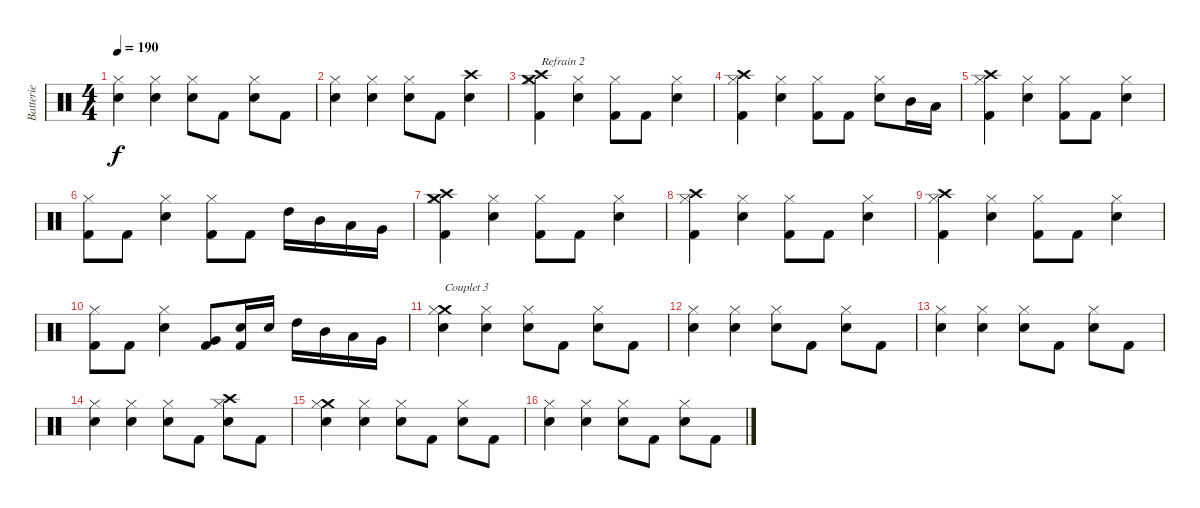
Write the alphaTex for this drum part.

\track ("Batterie" "Batterie") {instrument percussion}
\staff {score}
\articulation defaults
\ts (4 4)
\tempo 190
\clef neutral
\ks c
("Electric Snare (hit)" "Hi-Hat (closed)").4{dy f} ("Electric Snare (hit)" "Hi-Hat (closed)").4 ("Electric Snare (hit)" "Hi-Hat (closed)").8 "Kick (hit) 2".8 ("Electric Snare (hit)" "Hi-Hat (closed)").8 "Kick (hit) 2".8 |
("Electric Snare (hit)" "Hi-Hat (closed)").4 ("Electric Snare (hit)" "Hi-Hat (closed)").4 ("Electric Snare (hit)" "Hi-Hat (closed)").8 "Kick (hit) 2".8 ("Crash high (hit)" "Electric Snare (hit)").4 |
("Crash medium (hit)" "Crash high (hit)" "Hi-Hat (closed)" "Kick (hit) 2").4{txt "Refrain 2"} ("Electric Snare (hit)" "Hi-Hat (closed)").4 ("Hi-Hat (closed)" "Kick (hit) 2").8 "Kick (hit) 2".8 ("Electric Snare (hit)" "Hi-Hat (closed)").4 |
("Crash high (hit)" "Hi-Hat (closed)" "Kick (hit) 2").4 ("Electric Snare (hit)" "Hi-Hat (closed)").4 ("Hi-Hat (closed)" "Kick (hit) 2").8 "Kick (hit) 2".8 ("Electric Snare (hit)" "Hi-Hat (closed)").8 "Mid Tom (hit)".16 "Low Tom (hit)".16 |
("Crash high (hit)" "Hi-Hat (closed)" "Kick (hit) 2").4 ("Electric Snare (hit)" "Hi-Hat (closed)").4 ("Hi-Hat (closed)" "Kick (hit) 2").8 "Kick (hit) 2".8 ("Electric Snare (hit)" "Hi-Hat (closed)").4 |
("Hi-Hat (closed)" "Kick (hit) 2").8 "Kick (hit) 2".8 ("Electric Snare (hit)" "Hi-Hat (closed)").4 ("Hi-Hat (closed)" "Kick (hit) 2").8 "Kick (hit) 2".8 "High Tom (hit)".16 "Mid Tom (hit)".16 "Low Tom (hit)".16 "Very Low Tom (hit)".16 |
("Crash medium (hit)" "Crash high (hit)" "Hi-Hat (closed)" "Kick (hit) 2").4 ("Electric Snare (hit)" "Hi-Hat (closed)").4 ("Hi-Hat (closed)" "Kick (hit) 2").8 "Kick (hit) 2".8 ("Electric Snare (hit)" "Hi-Hat (closed)").4 |
("Crash high (hit)" "Hi-Hat (closed)" "Kick (hit) 2").4 ("Electric Snare (hit)" "Hi-Hat (closed)").4 ("Hi-Hat (closed)" "Kick (hit) 2").8 "Kick (hit) 2".8 ("Electric Snare (hit)" "Hi-Hat (closed)").4 |
("Crash high (hit)" "Hi-Hat (closed)" "Kick (hit) 2").4 ("Electric Snare (hit)" "Hi-Hat (closed)").4 ("Hi-Hat (closed)" "Kick (hit) 2").8 "Kick (hit) 2".8 ("Electric Snare (hit)" "Hi-Hat (closed)").4 |
("Hi-Hat (closed)" "Kick (hit) 2").8 "Kick (hit) 2".8 ("Electric Snare (hit)" "Hi-Hat (closed)").4 ("Very Low Tom (hit)" "Kick (hit) 2").8 ("Electric Snare (hit)" "Kick (hit) 2").16 "Electric Snare (hit)".16 "High Tom (hit)".16 "Mid Tom (hit)".16 "Low Tom (hit)".16 "Very Low Tom (hit)".16 |
("Crash medium (hit)" "Electric Snare (hit)" "Hi-Hat (closed)").4{txt "Couplet 3"} ("Electric Snare (hit)" "Hi-Hat (closed)").4 ("Electric Snare (hit)" "Hi-Hat (closed)").8 "Kick (hit) 2".8 ("Electric Snare (hit)" "Hi-Hat (closed)").8 "Kick (hit) 2".8 |
("Electric Snare (hit)" "Hi-Hat (closed)").4 ("Electric Snare (hit)" "Hi-Hat (closed)").4 ("Electric Snare (hit)" "Hi-Hat (closed)").8 "Kick (hit) 2".8 ("Electric Snare (hit)" "Hi-Hat (closed)").8 "Kick (hit) 2".8 |
("Electric Snare (hit)" "Hi-Hat (closed)").4 ("Electric Snare (hit)" "Hi-Hat (closed)").4 ("Electric Snare (hit)" "Hi-Hat (closed)").8 "Kick (hit) 2".8 ("Electric Snare (hit)" "Hi-Hat (closed)").8 "Kick (hit) 2".8 |
("Electric Snare (hit)" "Hi-Hat (closed)").4 ("Electric Snare (hit)" "Hi-Hat (closed)").4 ("Electric Snare (hit)" "Hi-Hat (closed)").8 "Kick (hit) 2".8 ("Crash high (hit)" "Electric Snare (hit)" "Hi-Hat (closed)").8 "Kick (hit) 2".8 |
("Crash medium (hit)" "Electric Snare (hit)" "Hi-Hat (closed)").4 ("Electric Snare (hit)" "Hi-Hat (closed)").4 ("Electric Snare (hit)" "Hi-Hat (closed)").8 "Kick (hit) 2".8 ("Electric Snare (hit)" "Hi-Hat (closed)").8 "Kick (hit) 2".8 |
("Electric Snare (hit)" "Hi-Hat (closed)").4 ("Electric Snare (hit)" "Hi-Hat (closed)").4 ("Electric Snare (hit)" "Hi-Hat (closed)").8 "Kick (hit) 2".8 ("Electric Snare (hit)" "Hi-Hat (closed)").8 "Kick (hit) 2".8
